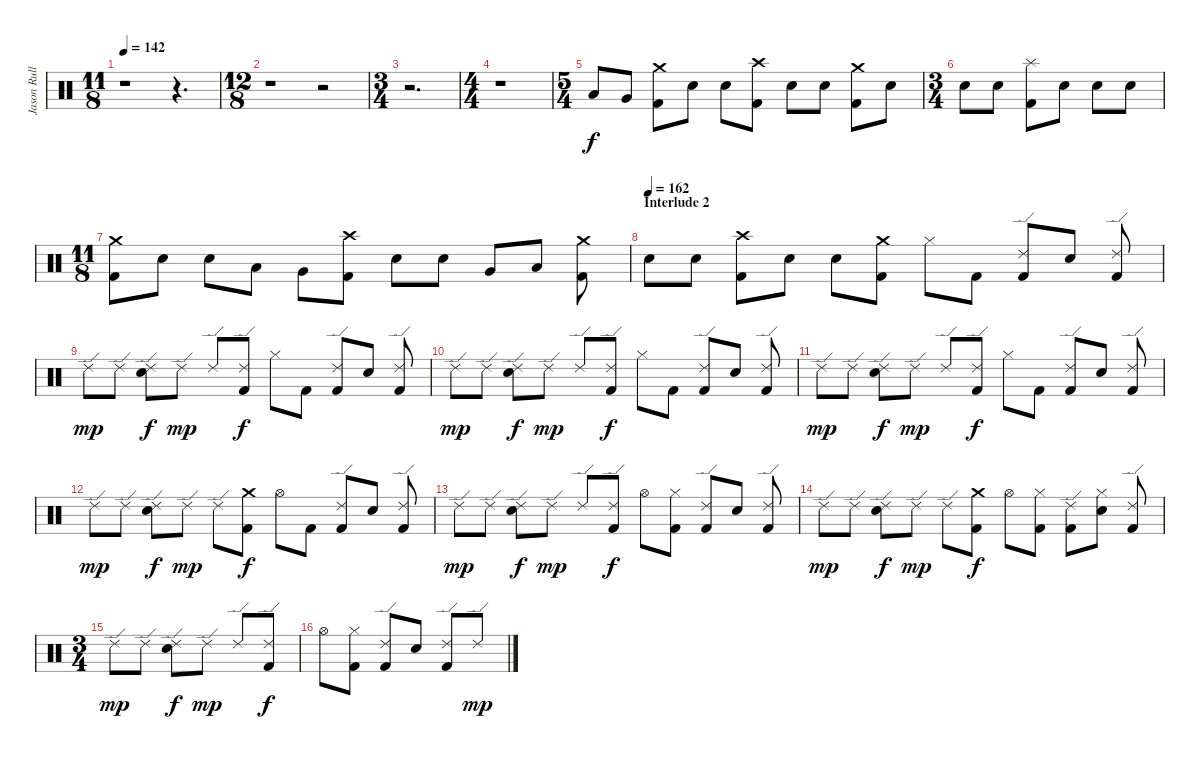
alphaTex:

\track ("Jason Rullo" "Jason Rull") {instrument percussion}
\staff {score}
\articulation defaults
\ts (11 8)
\tempo 142
\clef neutral
\ks c
r.1{dy f} r.4{d} |
\ts (12 8)
r.1 r.2 |
\ts (3 4)
r.2{d} |
\ts (4 4)
r.1 |
\ts (5 4)
"Low Tom (hit)".8 "Very Low Tom (hit)".8 ("Crash medium (hit)" "Kick (hit) 2").8 "Electric Snare (hit)".8 "Electric Snare (hit)".8 ("Crash high (hit)" "Kick (hit) 2").8 "Electric Snare (hit)".8 "Electric Snare (hit)".8 ("Crash medium (hit)" "Kick (hit) 2").8 "Electric Snare (hit)".8 |
\ts (3 4)
"Electric Snare (hit)".8 "Electric Snare (hit)".8 ("Splash (hit)" "Kick (hit) 2").8 "Electric Snare (hit)".8 "Electric Snare (hit)".8 "Electric Snare (hit)".8 |
\ts (11 8)
("Crash medium (hit)" "Kick (hit) 2").8 "Electric Snare (hit)".8 "Electric Snare (hit)".8 "Low Tom (hit)".8 "Very Low Tom (hit)".8 ("Crash high (hit)" "Kick (hit) 2").8 "Electric Snare (hit)".8 "Electric Snare (hit)".8 "Very Low Tom (hit)".8 "Low Floor Tom (hit)".8 ("Crash medium (hit)" "Kick (hit) 2").8 |
\section ("" "Interlude 2")
\tempo (162)
"Electric Snare (hit)".8 "Electric Snare (hit)".8 ("Crash high (hit)" "Kick (hit) 2").8 "Electric Snare (hit)".8 "Electric Snare (hit)".8 ("Crash medium (hit)" "Kick (hit) 2").8 "Hi-Hat (closed)".8 "Kick (hit) 2".8 ("Ride (edge) 2" "Kick (hit) 2").8 "Electric Snare (hit)".8 ("Ride (edge) 2" "Kick (hit) 2").8 |
"Ride (edge) 2".8{dy mp} "Ride (edge) 2".8 ("Ride (edge) 2" "Electric Snare (hit)").8{dy f} "Ride (edge) 2".8{dy mp} "Ride (edge) 2".8 ("Ride (edge) 2" "Kick (hit) 2").8{dy f} "Hi-Hat (closed)".8 "Kick (hit) 2".8 ("Ride (edge) 2" "Kick (hit) 2").8 "Electric Snare (hit)".8 ("Ride (edge) 2" "Kick (hit) 2").8 |
"Ride (edge) 2".8{dy mp} "Ride (edge) 2".8 ("Ride (edge) 2" "Electric Snare (hit)").8{dy f} "Ride (edge) 2".8{dy mp} "Ride (edge) 2".8 ("Ride (edge) 2" "Kick (hit) 2").8{dy f} "Hi-Hat (closed)".8 "Kick (hit) 2".8 ("Ride (edge) 2" "Kick (hit) 2").8 "Electric Snare (hit)".8 ("Ride (edge) 2" "Kick (hit) 2").8 |
"Ride (edge) 2".8{dy mp} "Ride (edge) 2".8 ("Ride (edge) 2" "Electric Snare (hit)").8{dy f} "Ride (edge) 2".8{dy mp} "Ride (edge) 2".8 ("Ride (edge) 2" "Kick (hit) 2").8{dy f} "Hi-Hat (closed)".8 "Kick (hit) 2".8 ("Ride (edge) 2" "Kick (hit) 2").8 "Electric Snare (hit)".8 ("Ride (edge) 2" "Kick (hit) 2").8 |
"Ride (edge) 2".8{dy mp} "Ride (edge) 2".8 ("Ride (edge) 2" "Electric Snare (hit)").8{dy f} "Ride (edge) 2".8{dy mp} "Ride (edge) 2".8 ("Crash medium (hit)" "Kick (hit) 2").8{dy f} "Hi-Hat (open)".8 "Kick (hit) 2".8 ("Ride (edge) 2" "Kick (hit) 2").8 "Electric Snare (hit)".8 ("Ride (edge) 2" "Kick (hit) 2").8 |
"Ride (edge) 2".8{dy mp} "Ride (edge) 2".8 ("Ride (edge) 2" "Electric Snare (hit)").8{dy f} "Ride (edge) 2".8{dy mp} "Ride (edge) 2".8 ("Ride (edge) 2" "Kick (hit) 2").8{dy f} "Hi-Hat (open)".8 ("Hi-Hat (closed)" "Kick (hit) 2").8 ("Ride (edge) 2" "Kick (hit) 2").8 "Electric Snare (hit)".8 ("Ride (edge) 2" "Kick (hit) 2").8 |
"Ride (edge) 2".8{dy mp} "Ride (edge) 2".8 ("Ride (edge) 2" "Electric Snare (hit)").8{dy f} "Ride (edge) 2".8{dy mp} "Ride (edge) 2".8 ("Crash medium (hit)" "Kick (hit) 2").8{dy f} "Hi-Hat (open)".8 ("Hi-Hat (closed)" "Kick (hit) 2").8 ("Ride (edge) 2" "Kick (hit) 2").8 ("Hi-Hat (closed)" "Electric Snare (hit)").8 ("Ride (edge) 2" "Kick (hit) 2").8 |
\ts (3 4)
"Ride (edge) 2".8{dy mp} "Ride (edge) 2".8 ("Ride (edge) 2" "Electric Snare (hit)").8{dy f} "Ride (edge) 2".8{dy mp} "Ride (edge) 2".8 ("Ride (edge) 2" "Kick (hit) 2").8{dy f} |
"Hi-Hat (open)".8 ("Hi-Hat (closed)" "Kick (hit) 2").8 ("Ride (edge) 2" "Kick (hit) 2").8 "Electric Snare (hit)".8 ("Ride (edge) 2" "Kick (hit) 2").8 "Ride (edge) 2".8{dy mp}
